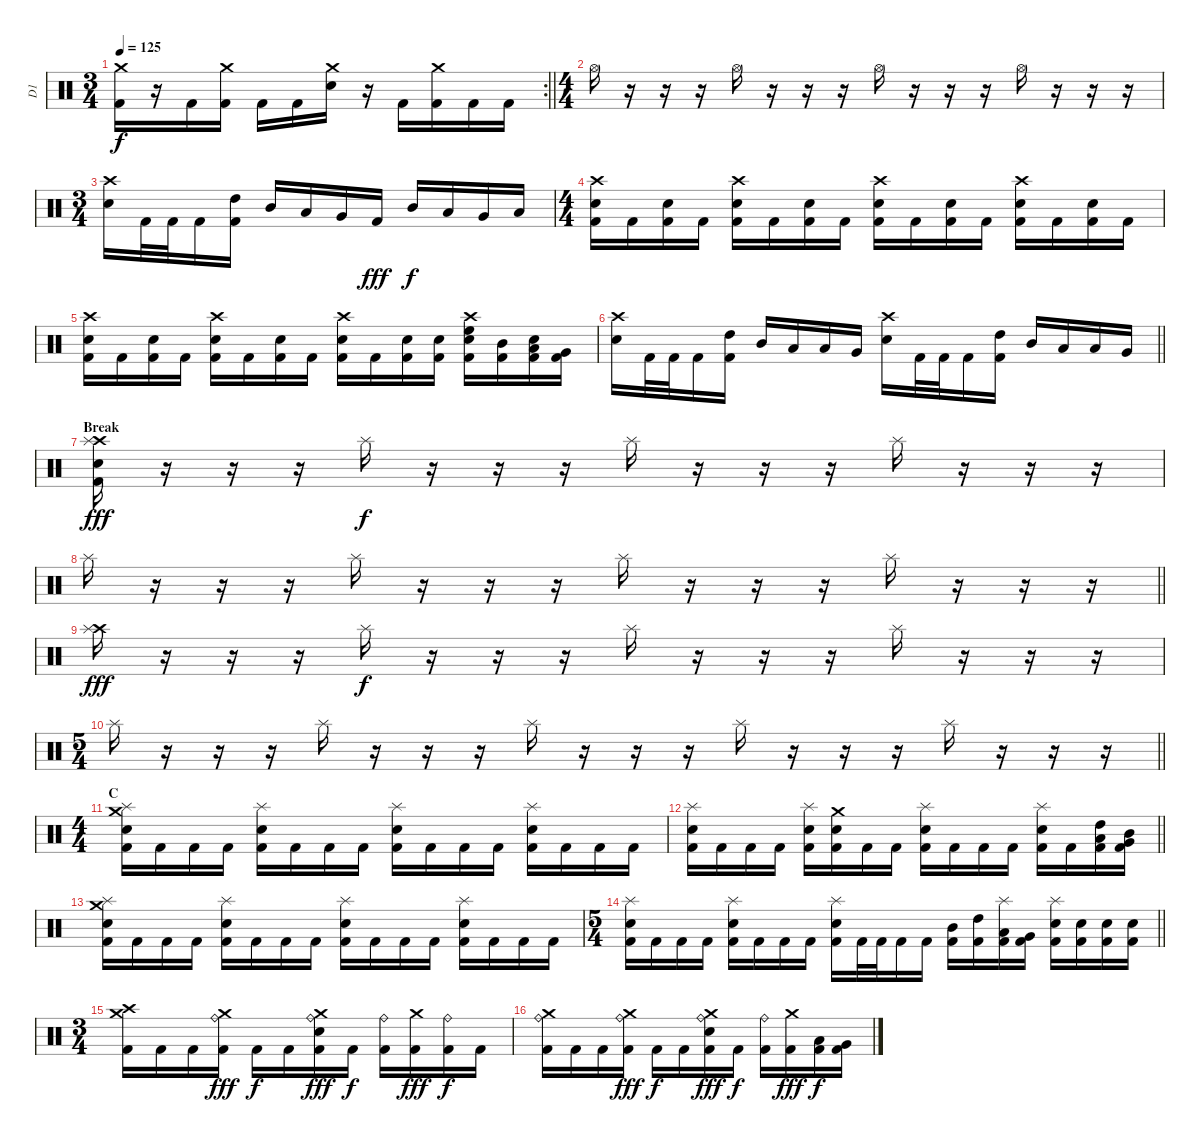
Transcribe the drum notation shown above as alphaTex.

\track ("D1" "D1") {instrument percussion}
\staff {score}
\articulation defaults
\rc 2
\ts (3 4)
\tempo 125
\clef neutral
\barLineRight lightlight
\ks c
("Crash medium (hit)" "Kick (hit) 2").16{dy f} r.16 "Kick (hit) 2".16 ("Crash medium (hit)" "Kick (hit) 2").16 "Kick (hit) 2".16 "Kick (hit) 2".16 ("Crash medium (hit)" "Snare (hit) 2").16 r.16 "Kick (hit) 2".16 ("Crash medium (hit)" "Kick (hit) 2").16 "Kick (hit) 2".16 "Kick (hit) 2".16 |
\ts (4 4)
\section ("" "")
"Hi-Hat (open)".16 r.16 r.16 r.16 "Hi-Hat (open)".16 r.16 r.16 r.16 "Hi-Hat (open)".16 r.16 r.16 r.16 "Hi-Hat (open)".16 r.16 r.16 r.16 |
\ts (3 4)
("Crash high (hit)" "Snare (hit) 2").16 "Kick (hit) 2".32 "Kick (hit) 2".32 "Kick (hit) 2".16 ("High Tom (hit)" "Kick (hit) 2").16 "Mid Tom (hit)".16 "Low Tom (hit)".16 "Very Low Tom (hit)".16 "Kick (hit) 2".16{dy fff} "Mid Tom (hit)".16{dy f} "Low Tom (hit)".16 "Very Low Tom (hit)".16 "Low Floor Tom (hit)".16 |
\ts (4 4)
("Crash high (hit)" "Snare (hit) 2" "Kick (hit) 2").16 "Kick (hit) 2".16 ("Snare (hit) 2" "Kick (hit) 2").16 "Kick (hit) 2".16 ("Crash high (hit)" "Snare (hit) 2" "Kick (hit) 2").16 "Kick (hit) 2".16 ("Snare (hit) 2" "Kick (hit) 2").16 "Kick (hit) 2".16 ("Crash high (hit)" "Snare (hit) 2" "Kick (hit) 2").16 "Kick (hit) 2".16 ("Snare (hit) 2" "Kick (hit) 2").16 "Kick (hit) 2".16 ("Crash high (hit)" "Snare (hit) 2" "Kick (hit) 2").16 "Kick (hit) 2".16 ("Snare (hit) 2" "Kick (hit) 2").16 "Kick (hit) 2".16 |
("Crash high (hit)" "Snare (hit) 2" "Kick (hit) 2").16 "Kick (hit) 2".16 ("Snare (hit) 2" "Kick (hit) 2").16 "Kick (hit) 2".16 ("Crash high (hit)" "Snare (hit) 2" "Kick (hit) 2").16 "Kick (hit) 2".16 ("Snare (hit) 2" "Kick (hit) 2").16 "Kick (hit) 2".16 ("Crash high (hit)" "Snare (hit) 2" "Kick (hit) 2").16 "Kick (hit) 2".16 ("Snare (hit) 2" "Kick (hit) 2").16 ("Snare (hit) 2" "Kick (hit) 2").16 ("Crash high (hit)" "High Floor Tom (hit)" "Snare (hit) 2" "Kick (hit) 2").16 ("Mid Tom (hit)" "Kick (hit) 2").16 ("Low Tom (hit)" "Snare (hit) 2" "Kick (hit) 2").16 ("Very Low Tom (hit)" "Kick (hit) 2").16 |
\barLineRight lightlight
("Crash high (hit)" "Snare (hit) 2").16 "Kick (hit) 2".32 "Kick (hit) 2".32 "Kick (hit) 2".16 ("High Tom (hit)" "Kick (hit) 2").16 "Mid Tom (hit)".16 "Low Tom (hit)".16 "Low Tom (hit)".16 "Very Low Tom (hit)".16 ("Crash high (hit)" "Snare (hit) 2").16 "Kick (hit) 2".32 "Kick (hit) 2".32 "Kick (hit) 2".16 ("High Tom (hit)" "Kick (hit) 2").16 "Mid Tom (hit)".16 "Low Tom (hit)".16 "Low Tom (hit)".16 "Very Low Tom (hit)".16 |
\section ("" "Break")
("Crash high (hit)" "Splash (hit)" "Snare (hit) 2" "Kick (hit) 2").16{dy fff} r.16 r.16 r.16 "Splash (hit)".16{dy f} r.16 r.16 r.16 "Splash (hit)".16 r.16 r.16 r.16 "Splash (hit)".16 r.16 r.16 r.16 |
\barLineRight lightlight "Splash (hit)".16
r.16 r.16 r.16 "Splash (hit)".16 r.16 r.16 r.16 "Splash (hit)".16 r.16 r.16 r.16 "Splash (hit)".16 r.16 r.16 r.16 |
("Crash high (hit)" "Splash (hit)").16{dy fff} r.16 r.16 r.16 "Splash (hit)".16{dy f} r.16 r.16 r.16 "Splash (hit)".16 r.16 r.16 r.16 "Splash (hit)".16 r.16 r.16 r.16 |
\ts (5 4)
\barLineRight lightlight "Splash (hit)".16
r.16 r.16 r.16 "Splash (hit)".16 r.16 r.16 r.16 "Splash (hit)".16 r.16 r.16 r.16 "Splash (hit)".16 r.16 r.16 r.16 "Splash (hit)".16 r.16 r.16 r.16 |
\ts (4 4)
\section ("" "C")
("Crash medium (hit)" "Splash (hit)" "Snare (hit) 2" "Kick (hit) 2").16 "Kick (hit) 2".16 "Kick (hit) 2".16 "Kick (hit) 2".16 ("Splash (hit)" "Snare (hit) 2" "Kick (hit) 2").16 "Kick (hit) 2".16 "Kick (hit) 2".16 "Kick (hit) 2".16 ("Splash (hit)" "Snare (hit) 2" "Kick (hit) 2").16 "Kick (hit) 2".16 "Kick (hit) 2".16 "Kick (hit) 2".16 ("Splash (hit)" "Snare (hit) 2" "Kick (hit) 2").16 "Kick (hit) 2".16 "Kick (hit) 2".16 "Kick (hit) 2".16 |
\barLineRight lightlight
("Splash (hit)" "Snare (hit) 2" "Kick (hit) 2").16 "Kick (hit) 2".16 "Kick (hit) 2".16 "Kick (hit) 2".16 ("Splash (hit)" "Snare (hit) 2" "Kick (hit) 2").16 ("Crash medium (hit)" "Snare (hit) 2" "Kick (hit) 2").16 "Kick (hit) 2".16 "Kick (hit) 2".16 ("Splash (hit)" "Snare (hit) 2" "Kick (hit) 2").16 "Kick (hit) 2".16 "Kick (hit) 2".16 "Kick (hit) 2".16 ("Splash (hit)" "Snare (hit) 2" "Kick (hit) 2").16 "Kick (hit) 2".16 ("High Tom (hit)" "Low Tom (hit)" "Kick (hit) 2").16 ("Mid Tom (hit)" "Very Low Tom (hit)" "Kick (hit) 2").16 |
("Crash medium (hit)" "Splash (hit)" "Snare (hit) 2" "Kick (hit) 2").16 "Kick (hit) 2".16 "Kick (hit) 2".16 "Kick (hit) 2".16 ("Splash (hit)" "Snare (hit) 2" "Kick (hit) 2").16 "Kick (hit) 2".16 "Kick (hit) 2".16 "Kick (hit) 2".16 ("Splash (hit)" "Snare (hit) 2" "Kick (hit) 2").16 "Kick (hit) 2".16 "Kick (hit) 2".16 "Kick (hit) 2".16 ("Splash (hit)" "Snare (hit) 2" "Kick (hit) 2").16 "Kick (hit) 2".16 "Kick (hit) 2".16 "Kick (hit) 2".16 |
\ts (5 4)
\barLineRight lightlight
("Splash (hit)" "Snare (hit) 2" "Kick (hit) 2").16 "Kick (hit) 2".16 "Kick (hit) 2".16 "Kick (hit) 2".16 ("Splash (hit)" "Snare (hit) 2" "Kick (hit) 2").16 "Kick (hit) 2".16 "Kick (hit) 2".16 "Kick (hit) 2".16 ("Splash (hit)" "Snare (hit) 2" "Kick (hit) 2").16 "Kick (hit) 2".32 "Kick (hit) 2".32 "Kick (hit) 2".16 "Kick (hit) 2".16 ("Mid Tom (hit)" "Kick (hit) 2").16 ("High Tom (hit)" "Kick (hit) 2").16 ("Splash (hit)" "Low Tom (hit)" "Kick (hit) 2").16 ("Very Low Tom (hit)" "Kick (hit) 2").16 ("Splash (hit)" "Snare (hit) 2" "Kick (hit) 2").16 ("Snare (hit) 2" "Kick (hit) 2").16 ("Snare (hit) 2" "Kick (hit) 2").16 ("Snare (hit) 2" "Kick (hit) 2").16 |
\ts (3 4)
\section ("" "")
("Crash medium (hit)" "Crash high (hit)" "Kick (hit) 2").16 "Kick (hit) 2".16 "Kick (hit) 2".16 ("Crash medium (hit)" "Ride (bell)" "Kick (hit) 2").16{dy fff} "Kick (hit) 2".16{dy f} "Kick (hit) 2".16 ("Crash medium (hit)" "Ride (bell)" "Snare (hit) 2" "Kick (hit) 2").16{dy fff} "Kick (hit) 2".16{dy f} ("Ride (bell)" "Kick (hit) 2").16 ("Crash medium (hit)" "Kick (hit) 2").16{dy fff} ("Ride (bell)" "Kick (hit) 2").16{dy f} "Kick (hit) 2".16 |
("Crash medium (hit)" "Ride (bell)" "Kick (hit) 2").16 "Kick (hit) 2".16 "Kick (hit) 2".16 ("Crash medium (hit)" "Ride (bell)" "Kick (hit) 2").16{dy fff} "Kick (hit) 2".16{dy f} "Kick (hit) 2".16 ("Crash medium (hit)" "Ride (bell)" "Snare (hit) 2" "Kick (hit) 2").16{dy fff} "Kick (hit) 2".16{dy f} ("Ride (bell)" "Kick (hit) 2").16 ("Crash medium (hit)" "Kick (hit) 2").16{dy fff} ("Low Tom (hit)" "Kick (hit) 2").16{dy f} ("Very Low Tom (hit)" "Kick (hit) 2").16
